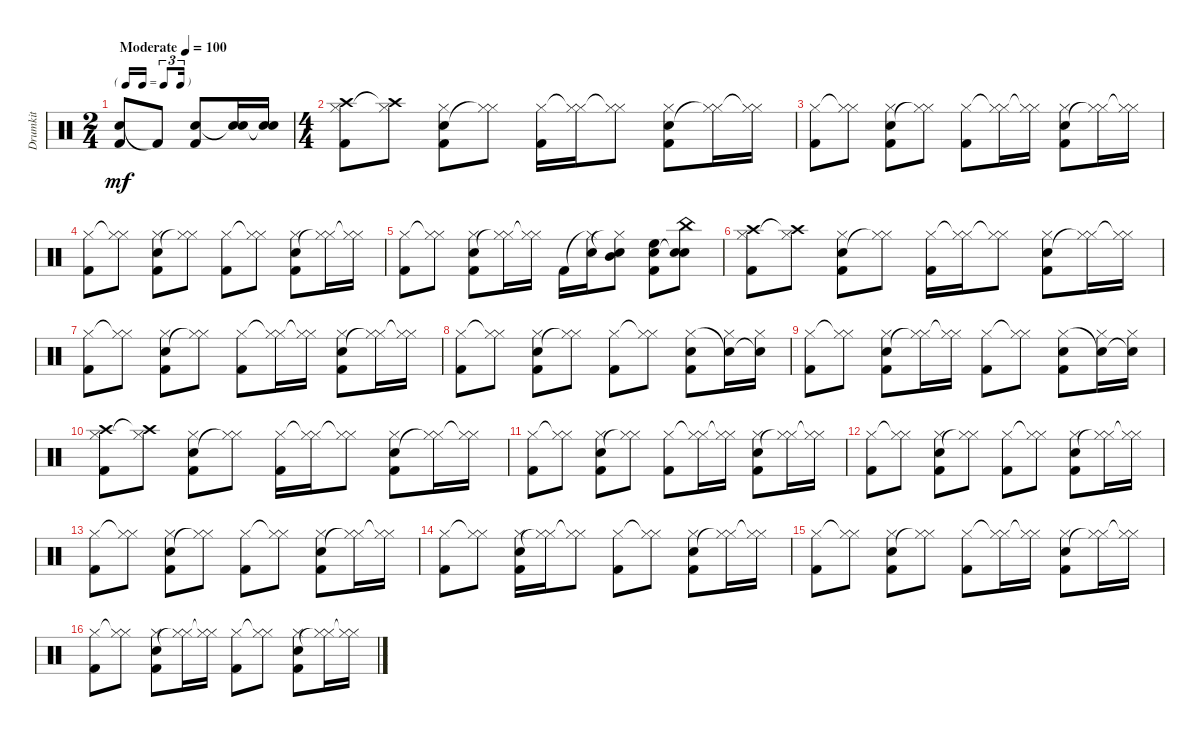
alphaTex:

\track ("Drumkit" "Drumkit") {instrument percussion}
\staff {score}
\articulation defaults
\ts (2 4)
\tf triplet16th
\tempo (100 "Moderate")
\clef neutral
\ks c
("Snare (hit) 2" "Kick (hit) 2").8{dy mf} "Kick (hit) 2"{t}.8 ("Snare (hit) 2" "Kick (hit) 2").8 ("Snare (hit) 2"{t} "Snare (hit) 2").16 ("Snare (hit) 2"{t} "Snare (hit) 2").16 |
\ts (4 4)
("Hi-Hat (closed)" "Crash high (hit)" "Kick (hit) 2").8 ("Crash high (hit)"{t} "Hi-Hat (closed)").8 ("Snare (hit) 2" "Hi-Hat (closed)" "Kick (hit) 2").8 ("Hi-Hat (closed)"{t} "Hi-Hat (closed)").8 ("Hi-Hat (closed)" "Kick (hit) 2").16 ("Hi-Hat (closed)"{t} "Hi-Hat (closed)").16 ("Hi-Hat (closed)"{t} "Hi-Hat (closed)").8 ("Snare (hit) 2" "Hi-Hat (closed)" "Kick (hit) 2").8 ("Hi-Hat (closed)"{t} "Hi-Hat (closed)").16 ("Hi-Hat (closed)"{t} "Hi-Hat (closed)").16 |
("Hi-Hat (closed)" "Kick (hit) 2").8 ("Hi-Hat (closed)"{t} "Hi-Hat (closed)").8 ("Snare (hit) 2" "Hi-Hat (closed)" "Kick (hit) 2").8 ("Hi-Hat (closed)"{t} "Hi-Hat (closed)").8 ("Hi-Hat (closed)" "Kick (hit) 2").8 ("Hi-Hat (closed)"{t} "Hi-Hat (closed)").16 ("Hi-Hat (closed)"{t} "Hi-Hat (closed)").16 ("Snare (hit) 2" "Hi-Hat (closed)" "Kick (hit) 2").8 ("Hi-Hat (closed)"{t} "Hi-Hat (closed)").16 ("Hi-Hat (closed)"{t} "Hi-Hat (closed)").16 |
("Hi-Hat (closed)" "Kick (hit) 2").8 ("Hi-Hat (closed)"{t} "Hi-Hat (closed)").8 ("Snare (hit) 2" "Hi-Hat (closed)" "Kick (hit) 2").8 ("Hi-Hat (closed)"{t} "Hi-Hat (closed)").8 ("Hi-Hat (closed)" "Kick (hit) 2").8 ("Hi-Hat (closed)"{t} "Hi-Hat (closed)").8 ("Snare (hit) 2" "Hi-Hat (closed)" "Kick (hit) 2").8 ("Hi-Hat (closed)"{t} "Hi-Hat (closed)").16 ("Hi-Hat (closed)"{t} "Hi-Hat (closed)").16 |
("Hi-Hat (closed)" "Kick (hit) 2").8 ("Hi-Hat (closed)"{t} "Hi-Hat (closed)").8 ("Snare (hit) 2" "Hi-Hat (closed)" "Kick (hit) 2").8 ("Hi-Hat (closed)"{t} "Hi-Hat (closed)").16 ("Hi-Hat (closed)"{t} "Hi-Hat (closed)").16 "Kick (hit) 2".16 ("Hi-Hat (closed)"{t} "Electric Snare (hit)").16 ("Electric Snare (hit)" "Hi-Hat (closed)"{t} "Mid Tom (hit)").8 ("Electric Snare (hit)" "High Floor Tom (hit)" "Kick (hit) 2").8 ("Electric Snare (hit)"{t} "Electric Snare (hit)" "China (hit)").8 |
("Hi-Hat (closed)" "Crash high (hit)" "Kick (hit) 2").8 ("Crash high (hit)"{t} "Hi-Hat (closed)").8 ("Snare (hit) 2" "Hi-Hat (closed)" "Kick (hit) 2").8 ("Hi-Hat (closed)"{t} "Hi-Hat (closed)").8 ("Hi-Hat (closed)" "Kick (hit) 2").16 ("Hi-Hat (closed)"{t} "Hi-Hat (closed)").16 ("Hi-Hat (closed)"{t} "Hi-Hat (closed)").8 ("Snare (hit) 2" "Hi-Hat (closed)" "Kick (hit) 2").8 ("Hi-Hat (closed)"{t} "Hi-Hat (closed)").16 ("Hi-Hat (closed)"{t} "Hi-Hat (closed)").16 |
("Hi-Hat (closed)" "Kick (hit) 2").8 ("Hi-Hat (closed)"{t} "Hi-Hat (closed)").8 ("Snare (hit) 2" "Hi-Hat (closed)" "Kick (hit) 2").8 ("Hi-Hat (closed)"{t} "Hi-Hat (closed)").8 ("Hi-Hat (closed)" "Kick (hit) 2").8 ("Hi-Hat (closed)"{t} "Hi-Hat (closed)").16 ("Hi-Hat (closed)"{t} "Hi-Hat (closed)").16 ("Snare (hit) 2" "Hi-Hat (closed)" "Kick (hit) 2").8 ("Hi-Hat (closed)"{t} "Hi-Hat (closed)").16 ("Hi-Hat (closed)"{t} "Hi-Hat (closed)").16 |
("Hi-Hat (closed)" "Kick (hit) 2").8 ("Hi-Hat (closed)"{t} "Hi-Hat (closed)").8 ("Snare (hit) 2" "Hi-Hat (closed)" "Kick (hit) 2").8 ("Hi-Hat (closed)"{t} "Hi-Hat (closed)").8 ("Hi-Hat (closed)" "Kick (hit) 2").8 ("Hi-Hat (closed)"{t} "Hi-Hat (closed)").8 ("Hi-Hat (closed)" "Snare (hit) 2" "Kick (hit) 2").8 ("Snare (hit) 2"{t} "Hi-Hat (closed)").16 ("Snare (hit) 2"{t} "Hi-Hat (closed)").16 |
("Hi-Hat (closed)" "Kick (hit) 2").8 ("Hi-Hat (closed)"{t} "Hi-Hat (closed)").8 ("Snare (hit) 2" "Hi-Hat (closed)" "Kick (hit) 2").8 ("Hi-Hat (closed)"{t} "Hi-Hat (closed)").16 ("Hi-Hat (closed)"{t} "Hi-Hat (closed)").16 ("Hi-Hat (closed)" "Kick (hit) 2").8 ("Hi-Hat (closed)"{t} "Hi-Hat (closed)").8 ("Hi-Hat (closed)" "Snare (hit) 2" "Kick (hit) 2").8 ("Snare (hit) 2"{t} "Hi-Hat (closed)").16 ("Snare (hit) 2"{t} "Hi-Hat (closed)").16 |
("Hi-Hat (closed)" "Crash high (hit)" "Kick (hit) 2").8 ("Crash high (hit)"{t} "Hi-Hat (closed)").8 ("Snare (hit) 2" "Hi-Hat (closed)" "Kick (hit) 2").8 ("Hi-Hat (closed)"{t} "Hi-Hat (closed)").8 ("Hi-Hat (closed)" "Kick (hit) 2").16 ("Hi-Hat (closed)"{t} "Hi-Hat (closed)").16 ("Hi-Hat (closed)"{t} "Hi-Hat (closed)").8 ("Snare (hit) 2" "Hi-Hat (closed)" "Kick (hit) 2").8 ("Hi-Hat (closed)"{t} "Hi-Hat (closed)").16 ("Hi-Hat (closed)"{t} "Hi-Hat (closed)").16 |
("Hi-Hat (closed)" "Kick (hit) 2").8 ("Hi-Hat (closed)"{t} "Hi-Hat (closed)").8 ("Snare (hit) 2" "Hi-Hat (closed)" "Kick (hit) 2").8 ("Hi-Hat (closed)"{t} "Hi-Hat (closed)").8 ("Hi-Hat (closed)" "Kick (hit) 2").8 ("Hi-Hat (closed)"{t} "Hi-Hat (closed)").16 ("Hi-Hat (closed)"{t} "Hi-Hat (closed)").16 ("Snare (hit) 2" "Hi-Hat (closed)" "Kick (hit) 2").8 ("Hi-Hat (closed)"{t} "Hi-Hat (closed)").16 ("Hi-Hat (closed)"{t} "Hi-Hat (closed)").16 |
("Hi-Hat (closed)" "Kick (hit) 2").8 ("Hi-Hat (closed)"{t} "Hi-Hat (closed)").8 ("Snare (hit) 2" "Hi-Hat (closed)" "Kick (hit) 2").8 ("Hi-Hat (closed)"{t} "Hi-Hat (closed)").8 ("Hi-Hat (closed)" "Kick (hit) 2").8 ("Hi-Hat (closed)"{t} "Hi-Hat (closed)").8 ("Snare (hit) 2" "Hi-Hat (closed)" "Kick (hit) 2").8 ("Hi-Hat (closed)"{t} "Hi-Hat (closed)").16 ("Hi-Hat (closed)"{t} "Hi-Hat (closed)").16 |
("Hi-Hat (closed)" "Kick (hit) 2").8 ("Hi-Hat (closed)"{t} "Hi-Hat (closed)").8 ("Snare (hit) 2" "Hi-Hat (closed)" "Kick (hit) 2").8 ("Hi-Hat (closed)"{t} "Hi-Hat (closed)").8 ("Hi-Hat (closed)" "Kick (hit) 2").8 ("Hi-Hat (closed)"{t} "Hi-Hat (closed)").8 ("Snare (hit) 2" "Hi-Hat (closed)" "Kick (hit) 2").8 ("Hi-Hat (closed)"{t} "Hi-Hat (closed)").16 ("Hi-Hat (closed)"{t} "Hi-Hat (closed)").16 |
("Hi-Hat (closed)" "Kick (hit) 2").8 ("Hi-Hat (closed)"{t} "Hi-Hat (closed)").8 ("Snare (hit) 2" "Hi-Hat (closed)" "Kick (hit) 2").16 ("Hi-Hat (closed)"{t} "Hi-Hat (closed)").16 ("Hi-Hat (closed)"{t} "Hi-Hat (closed)").8 ("Hi-Hat (closed)" "Kick (hit) 2").8 ("Hi-Hat (closed)"{t} "Hi-Hat (closed)").8 ("Snare (hit) 2" "Hi-Hat (closed)" "Kick (hit) 2").8 ("Hi-Hat (closed)"{t} "Hi-Hat (closed)").16 ("Hi-Hat (closed)"{t} "Hi-Hat (closed)").16 |
("Hi-Hat (closed)" "Kick (hit) 2").8 ("Hi-Hat (closed)"{t} "Hi-Hat (closed)").8 ("Snare (hit) 2" "Hi-Hat (closed)" "Kick (hit) 2").8 ("Hi-Hat (closed)"{t} "Hi-Hat (closed)").8 ("Hi-Hat (closed)" "Kick (hit) 2").8 ("Hi-Hat (closed)"{t} "Hi-Hat (closed)").16 ("Hi-Hat (closed)"{t} "Hi-Hat (closed)").16 ("Snare (hit) 2" "Hi-Hat (closed)" "Kick (hit) 2").8 ("Hi-Hat (closed)"{t} "Hi-Hat (closed)").16 ("Hi-Hat (closed)"{t} "Hi-Hat (closed)").16 |
("Hi-Hat (closed)" "Kick (hit) 2").8 ("Hi-Hat (closed)"{t} "Hi-Hat (closed)").8 ("Snare (hit) 2" "Hi-Hat (closed)" "Kick (hit) 2").8 ("Hi-Hat (closed)"{t} "Hi-Hat (closed)").16 ("Hi-Hat (closed)"{t} "Hi-Hat (closed)").16 ("Hi-Hat (closed)" "Kick (hit) 2").8 ("Hi-Hat (closed)"{t} "Hi-Hat (closed)").8 ("Snare (hit) 2" "Hi-Hat (closed)" "Kick (hit) 2").8 ("Hi-Hat (closed)"{t} "Hi-Hat (closed)").16 ("Hi-Hat (closed)"{t} "Hi-Hat (closed)").16
